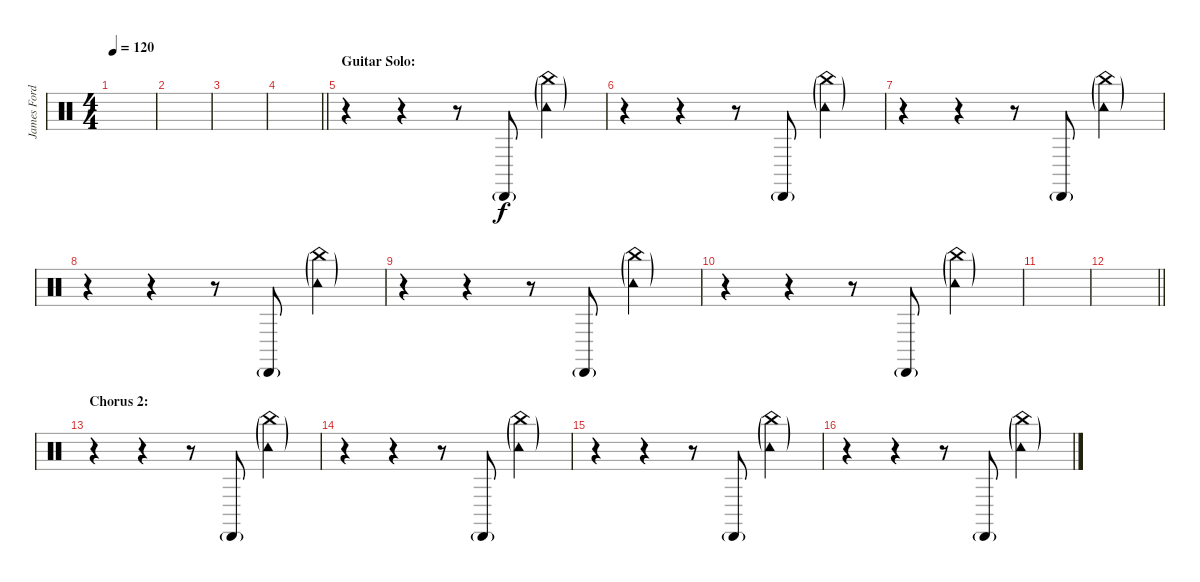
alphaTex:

\track ("James Ford (Percussion)" "James Ford") {instrument percussion}
\staff {score}
\articulation defaults
\ts (4 4)
\tempo 120
\clef neutral
\ks c
|
|
|
\barLineRight lightlight
|
\section ("" "Guitar Solo:")
r.4 r.4 r.8 "Cabasa (hit)"{g}.8 ("China (hit)"{g} "Tambourine (hit)"{g}).4 |
r.4 r.4 r.8 "Cabasa (hit)"{g}.8 ("China (hit)"{g} "Tambourine (hit)"{g}).4 |
r.4 r.4 r.8 "Cabasa (hit)"{g}.8 ("China (hit)"{g} "Tambourine (hit)"{g}).4 |
r.4 r.4 r.8 "Cabasa (hit)"{g}.8 ("China (hit)"{g} "Tambourine (hit)"{g}).4 |
r.4 r.4 r.8 "Cabasa (hit)"{g}.8 ("China (hit)"{g} "Tambourine (hit)"{g}).4 |
r.4 r.4 r.8 "Cabasa (hit)"{g}.8 ("China (hit)"{g} "Tambourine (hit)"{g}).4 |
|
\barLineRight lightlight
|
\section ("" "Chorus 2:")
r.4 r.4 r.8 "Cabasa (hit)"{g}.8 ("China (hit)"{g} "Tambourine (hit)"{g}).4 |
r.4 r.4 r.8 "Cabasa (hit)"{g}.8 ("China (hit)"{g} "Tambourine (hit)"{g}).4 |
r.4 r.4 r.8 "Cabasa (hit)"{g}.8 ("China (hit)"{g} "Tambourine (hit)"{g}).4 |
r.4 r.4 r.8 "Cabasa (hit)"{g}.8 ("China (hit)"{g} "Tambourine (hit)"{g}).4
